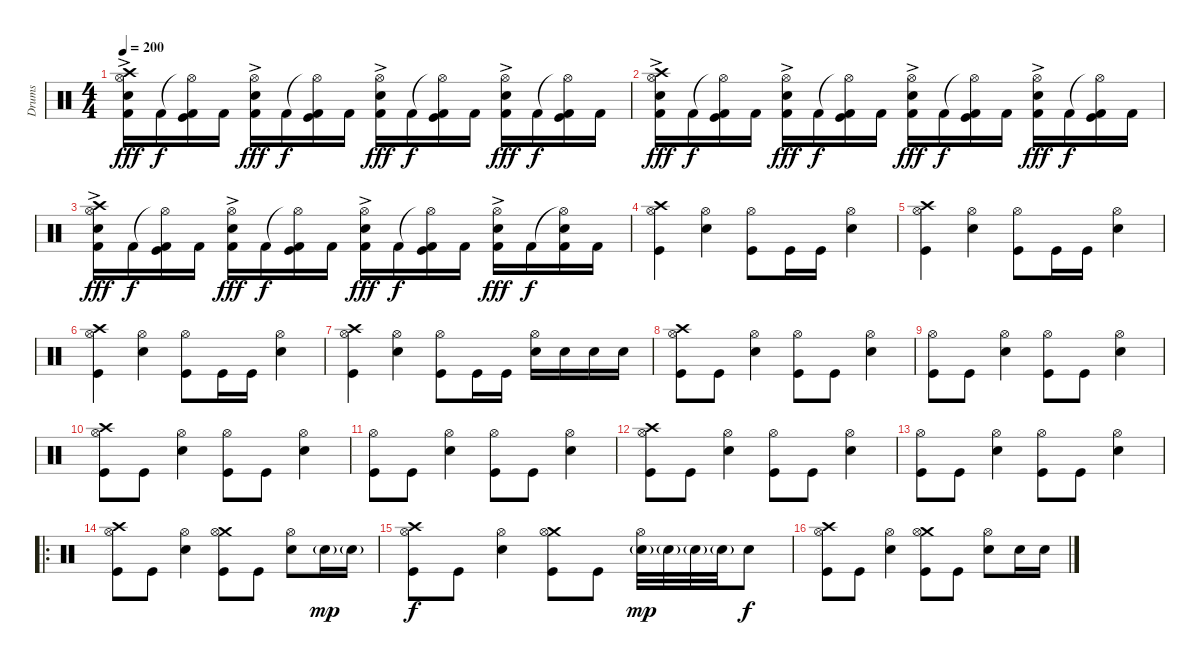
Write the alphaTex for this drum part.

\track ("Drums" "Drums") {instrument percussion}
\staff {score}
\articulation defaults
\ts (4 4)
\tempo 200
\clef neutral
\ks c
("Crash high (hit)"{ac} "Hi-Hat (open)"{ac} "Snare (hit) 2" "Kick (hit) 2").16{dy fff} "Kick (hit) 2".16{dy f} ("Hi-Hat (open)"{t} "Kick (hit)" "Kick (hit) 2").16 "Kick (hit) 2".16 ("Hi-Hat (open)"{ac} "Snare (hit) 2" "Kick (hit) 2").16{dy fff} "Kick (hit) 2".16{dy f} ("Hi-Hat (open)"{t} "Kick (hit)" "Kick (hit) 2").16 "Kick (hit) 2".16 ("Hi-Hat (open)"{ac} "Snare (hit) 2" "Kick (hit) 2").16{dy fff} "Kick (hit) 2".16{dy f} ("Hi-Hat (open)"{t} "Kick (hit)" "Kick (hit) 2").16 "Kick (hit) 2".16 ("Hi-Hat (open)"{ac} "Snare (hit) 2" "Kick (hit) 2").16{dy fff} "Kick (hit) 2".16{dy f} ("Hi-Hat (open)"{t} "Kick (hit)" "Kick (hit) 2").16 "Kick (hit) 2".16 |
("Crash high (hit)"{ac} "Hi-Hat (open)"{ac} "Snare (hit) 2" "Kick (hit) 2").16{dy fff} "Kick (hit) 2".16{dy f} ("Hi-Hat (open)"{t} "Kick (hit)" "Kick (hit) 2").16 "Kick (hit) 2".16 ("Hi-Hat (open)"{ac} "Snare (hit) 2" "Kick (hit) 2").16{dy fff} "Kick (hit) 2".16{dy f} ("Hi-Hat (open)"{t} "Kick (hit)" "Kick (hit) 2").16 "Kick (hit) 2".16 ("Hi-Hat (open)"{ac} "Snare (hit) 2" "Kick (hit) 2").16{dy fff} "Kick (hit) 2".16{dy f} ("Hi-Hat (open)"{t} "Kick (hit)" "Kick (hit) 2").16 "Kick (hit) 2".16 ("Hi-Hat (open)"{ac} "Snare (hit) 2" "Kick (hit) 2").16{dy fff} "Kick (hit) 2".16{dy f} ("Hi-Hat (open)"{t} "Kick (hit)" "Kick (hit) 2").16 "Kick (hit) 2".16 |
("Crash high (hit)"{ac} "Hi-Hat (open)"{ac} "Snare (hit) 2" "Kick (hit) 2").16{dy fff} "Kick (hit) 2".16{dy f} ("Hi-Hat (open)"{t} "Kick (hit)" "Kick (hit) 2").16 "Kick (hit) 2".16 ("Hi-Hat (open)"{ac} "Snare (hit) 2" "Kick (hit) 2").16{dy fff} "Kick (hit) 2".16{dy f} ("Hi-Hat (open)"{t} "Kick (hit)" "Kick (hit) 2").16 "Kick (hit) 2".16 ("Hi-Hat (open)"{ac} "Snare (hit) 2" "Kick (hit) 2").16{dy fff} "Kick (hit) 2".16{dy f} ("Hi-Hat (open)"{t} "Kick (hit)" "Kick (hit) 2").16 "Kick (hit) 2".16 ("Hi-Hat (open)"{ac} "Snare (hit) 2" "Kick (hit) 2").16{dy fff} "Kick (hit) 2".16{dy f} ("Hi-Hat (open)"{t} "Snare (hit) 2" "Kick (hit) 2").16 "Kick (hit) 2".16 |
("Crash high (hit)" "Hi-Hat (open)" "Kick (hit)").4 ("Hi-Hat (open)" "Snare (hit) 2").4 ("Hi-Hat (open)" "Kick (hit)").8 "Kick (hit)".16 "Kick (hit)".16 ("Hi-Hat (open)" "Snare (hit) 2").4 |
("Crash high (hit)" "Hi-Hat (open)" "Kick (hit)").4 ("Hi-Hat (open)" "Snare (hit) 2").4 ("Hi-Hat (open)" "Kick (hit)").8 "Kick (hit)".16 "Kick (hit)".16 ("Hi-Hat (open)" "Snare (hit) 2").4 |
("Crash high (hit)" "Hi-Hat (open)" "Kick (hit)").4 ("Hi-Hat (open)" "Snare (hit) 2").4 ("Hi-Hat (open)" "Kick (hit)").8 "Kick (hit)".16 "Kick (hit)".16 ("Hi-Hat (open)" "Snare (hit) 2").4 |
("Crash high (hit)" "Hi-Hat (open)" "Kick (hit)").4 ("Hi-Hat (open)" "Snare (hit) 2").4 ("Hi-Hat (open)" "Kick (hit)").8 "Kick (hit)".16 "Kick (hit)".16 ("Hi-Hat (open)" "Snare (hit) 2").16 "Snare (hit) 2".16 "Snare (hit) 2".16 "Snare (hit) 2".16 |
("Crash high (hit)" "Hi-Hat (open)" "Kick (hit)").8 "Kick (hit)".8 ("Hi-Hat (open)" "Snare (hit) 2").4 ("Hi-Hat (open)" "Kick (hit)").8 "Kick (hit)".8 ("Hi-Hat (open)" "Snare (hit) 2").4 |
("Hi-Hat (open)" "Kick (hit)").8 "Kick (hit)".8 ("Hi-Hat (open)" "Snare (hit) 2").4 ("Hi-Hat (open)" "Kick (hit)").8 "Kick (hit)".8 ("Hi-Hat (open)" "Snare (hit) 2").4 |
("Crash high (hit)" "Hi-Hat (open)" "Kick (hit)").8 "Kick (hit)".8 ("Hi-Hat (open)" "Snare (hit) 2").4 ("Hi-Hat (open)" "Kick (hit)").8 "Kick (hit)".8 ("Hi-Hat (open)" "Snare (hit) 2").4 |
("Hi-Hat (open)" "Kick (hit)").8 "Kick (hit)".8 ("Hi-Hat (open)" "Snare (hit) 2").4 ("Hi-Hat (open)" "Kick (hit)").8 "Kick (hit)".8 ("Hi-Hat (open)" "Snare (hit) 2").4 |
("Crash high (hit)" "Hi-Hat (open)" "Kick (hit)").8 "Kick (hit)".8 ("Hi-Hat (open)" "Snare (hit) 2").4 ("Hi-Hat (open)" "Kick (hit)").8 "Kick (hit)".8 ("Hi-Hat (open)" "Snare (hit) 2").4 |
("Hi-Hat (open)" "Kick (hit)").8 "Kick (hit)".8 ("Hi-Hat (open)" "Snare (hit) 2").4 ("Hi-Hat (open)" "Kick (hit)").8 "Kick (hit)".8 ("Hi-Hat (open)" "Snare (hit) 2").4 |
\ro
("Crash high (hit)" "Hi-Hat (open)" "Kick (hit)").8 "Kick (hit)".8 ("Hi-Hat (open)" "Snare (hit) 2").4 ("Crash medium (hit)" "Hi-Hat (open)" "Kick (hit)").8 "Kick (hit)".8 ("Hi-Hat (open)" "Snare (hit) 2").8 "Snare (hit) 2"{g}.16{dy mp} "Snare (hit) 2"{g}.16 |
("Crash high (hit)" "Hi-Hat (open)" "Kick (hit)").8{dy f} "Kick (hit)".8 ("Hi-Hat (open)" "Snare (hit) 2").4 ("Crash medium (hit)" "Hi-Hat (open)" "Kick (hit)").8 "Kick (hit)".8 ("Hi-Hat (open)" "Snare (hit) 2"{g}).32{dy mp} "Snare (hit) 2"{g}.32 "Snare (hit) 2"{g}.32 "Snare (hit) 2"{g}.32 "Snare (hit) 2".8{dy f} |
("Crash high (hit)" "Hi-Hat (open)" "Kick (hit)").8 "Kick (hit)".8 ("Hi-Hat (open)" "Snare (hit) 2").4 ("Crash medium (hit)" "Hi-Hat (open)" "Kick (hit)").8 "Kick (hit)".8 ("Hi-Hat (open)" "Snare (hit) 2").8 "Snare (hit) 2".16 "Snare (hit) 2".16
